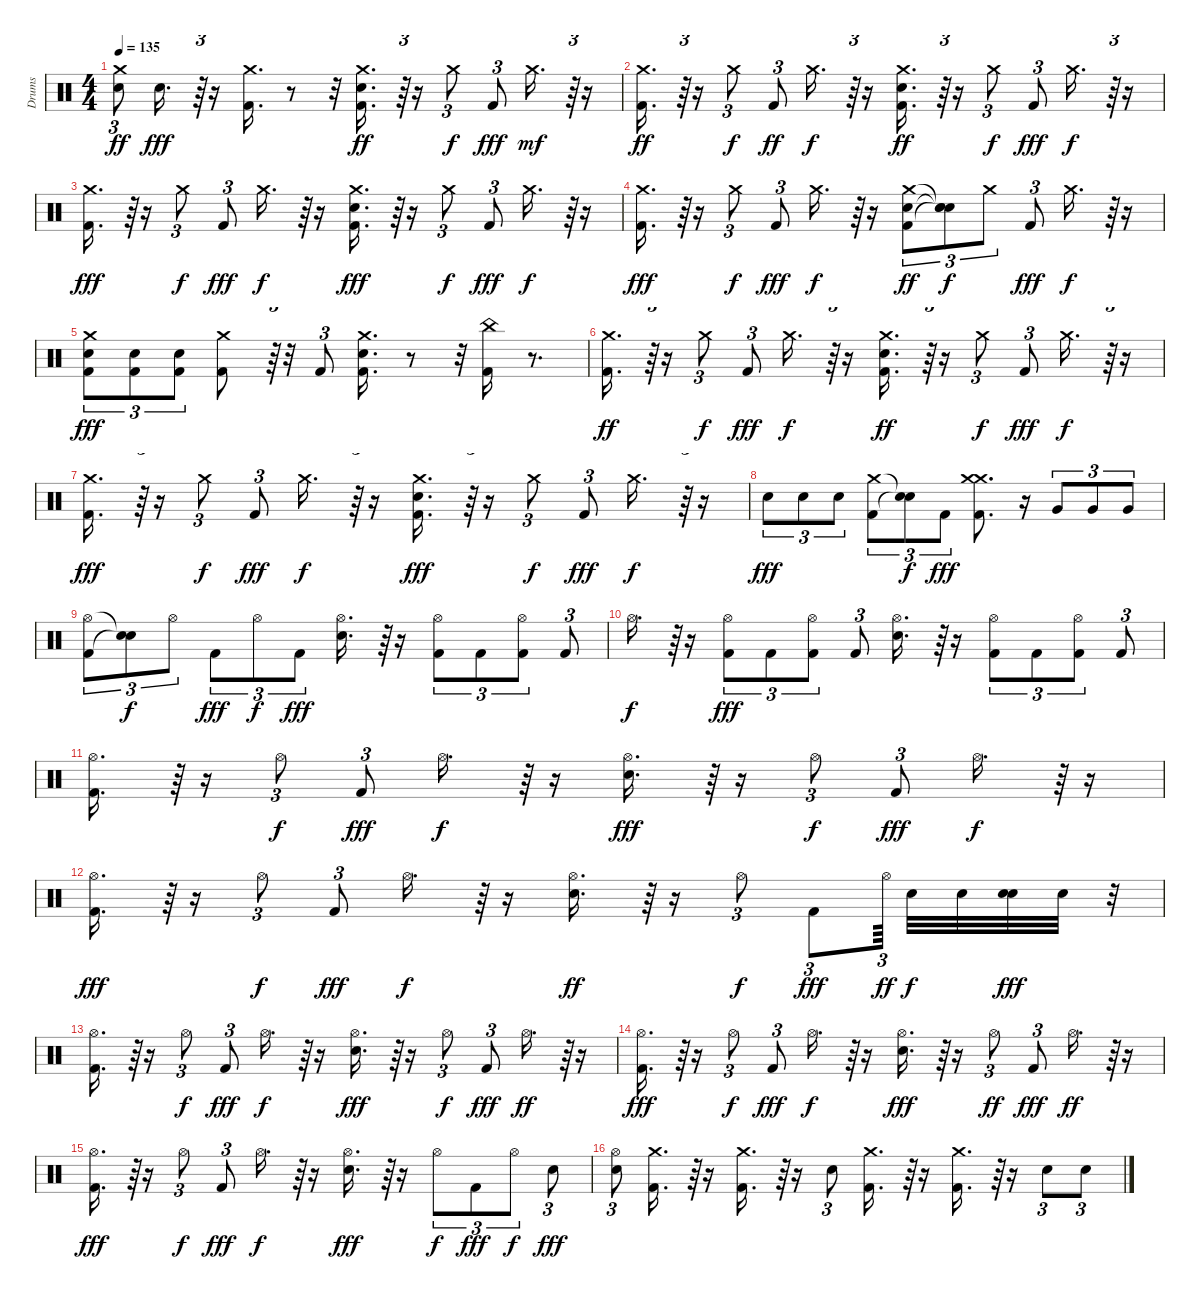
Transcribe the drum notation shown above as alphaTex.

\track ("Drums" "Drums") {instrument percussion}
\staff {score}
\articulation defaults
\ts (4 4)
\tempo 135
\clef neutral
\ks c
("Crash medium (hit)" "Snare (hit) 2").8{tu (3 2) dy ff} "Snare (hit) 2".16{d dy fff} r.64{tu (3 2)} r.16 ("Crash medium (hit)" "Kick (hit) 2").16{d} r.8 r.32 ("Crash medium (hit)" "Kick (hit) 2" "Snare (hit) 2").16{d dy ff} r.64{tu (3 2)} r.16 "Crash medium (hit)".8{tu (3 2) dy f} "Kick (hit) 2".8{tu (3 2) dy fff} "Crash medium (hit)".16{d dy mf} r.64{tu (3 2)} r.16 |
("Crash medium (hit)" "Kick (hit) 2").16{d dy ff} r.64{tu (3 2)} r.16 "Crash medium (hit)".8{tu (3 2) dy f} "Kick (hit) 2".8{tu (3 2) dy ff} "Crash medium (hit)".16{d dy f} r.64{tu (3 2)} r.16 ("Crash medium (hit)" "Kick (hit) 2" "Snare (hit) 2").16{d dy ff} r.64{tu (3 2)} r.16 "Crash medium (hit)".8{tu (3 2) dy f} "Kick (hit) 2".8{tu (3 2) dy fff} "Crash medium (hit)".16{d dy f} r.64{tu (3 2)} r.16 |
("Crash medium (hit)" "Kick (hit) 2").16{d dy fff} r.64{tu (3 2)} r.16 "Crash medium (hit)".8{tu (3 2) dy f} "Kick (hit) 2".8{tu (3 2) dy fff} "Crash medium (hit)".16{d dy f} r.64{tu (3 2)} r.16 ("Crash medium (hit)" "Snare (hit) 2" "Kick (hit) 2").16{d dy fff} r.64{tu (3 2)} r.16 "Crash medium (hit)".8{tu (3 2) dy f} "Kick (hit) 2".8{tu (3 2) dy fff} "Crash medium (hit)".16{d dy f} r.64{tu (3 2)} r.16 |
("Crash medium (hit)" "Kick (hit) 2").16{d dy fff} r.64{tu (3 2)} r.16 "Crash medium (hit)".8{tu (3 2) dy f} "Kick (hit) 2".8{tu (3 2) dy fff} "Crash medium (hit)".16{d dy f} r.64{tu (3 2)} r.16 ("Crash medium (hit)" "Kick (hit) 2" "Snare (hit) 2").8{tu (3 2) dy ff} ("Snare (hit)"{t} "Snare (hit)"{t} "Snare (hit)"{t}).8{tu (3 2) dy f} "Crash medium (hit)".8{tu (3 2)} "Kick (hit) 2".8{tu (3 2) dy fff} "Crash medium (hit)".16{d dy f} r.64{tu (3 2)} r.16 |
("Crash medium (hit)" "Kick (hit) 2" "Snare (hit) 2").8{tu (3 2) dy fff} ("Snare (hit) 2" "Kick (hit) 2").8{tu (3 2)} ("Kick (hit) 2" "Snare (hit) 2").8{tu (3 2)} ("Crash medium (hit)" "Kick (hit) 2").8 r.64{tu (3 2)} r.32 "Kick (hit) 2".8{tu (3 2)} ("Crash medium (hit)" "Snare (hit) 2" "Kick (hit) 2").16{d} r.8 r.32 ("China (hit)" "Kick (hit) 2").16 r.8{d} |
("Crash medium (hit)" "Kick (hit) 2").16{d dy ff} r.64{tu (3 2)} r.16 "Crash medium (hit)".8{tu (3 2) dy f} "Kick (hit) 2".8{tu (3 2) dy fff} "Crash medium (hit)".16{d dy f} r.64{tu (3 2)} r.16 ("Crash medium (hit)" "Kick (hit) 2" "Snare (hit) 2").16{d dy ff} r.64{tu (3 2)} r.16 "Crash medium (hit)".8{tu (3 2) dy f} "Kick (hit) 2".8{tu (3 2) dy fff} "Crash medium (hit)".16{d dy f} r.64{tu (3 2)} r.16 |
("Crash medium (hit)" "Kick (hit) 2").16{d dy fff} r.64{tu (3 2)} r.16 "Crash medium (hit)".8{tu (3 2) dy f} "Kick (hit) 2".8{tu (3 2) dy fff} "Crash medium (hit)".16{d dy f} r.64{tu (3 2)} r.16 ("Crash medium (hit)" "Kick (hit) 2" "Snare (hit) 2").16{d dy fff} r.64{tu (3 2)} r.16 "Crash medium (hit)".8{tu (3 2) dy f} "Kick (hit) 2".8{tu (3 2) dy fff} "Crash medium (hit)".16{d dy f} r.64{tu (3 2)} r.16 |
"Snare (hit) 2".8{tu (3 2) dy fff} "Snare (hit) 2".8{tu (3 2)} "Snare (hit) 2".8{tu (3 2)} ("Crash medium (hit)" "Kick (hit) 2").8{tu (3 2)} ("Snare (hit)"{t} "Snare (hit)"{t}).8{tu (3 2) dy f} "Kick (hit) 2".8{tu (3 2) dy fff} ("Crash medium (hit)" "Crash medium (hit)" "Kick (hit) 2").8{d} r.16 "Very Low Tom (hit)".8{tu (3 2)} "Very Low Tom (hit)".8{tu (3 2)} "Very Low Tom (hit)".8{tu (3 2)} |
("Hi-Hat (open)" "Kick (hit) 2").8{tu (3 2)} ("Snare (hit)"{t} "Snare (hit)"{t}).8{tu (3 2) dy f} "Hi-Hat (open)".8{tu (3 2)} "Kick (hit) 2".8{tu (3 2) dy fff} "Hi-Hat (open)".8{tu (3 2) dy f} "Kick (hit) 2".8{tu (3 2) dy fff} ("Hi-Hat (open)" "Snare (hit) 2").16{d} r.64{tu (3 2)} r.16 ("Hi-Hat (open)" "Kick (hit) 2").8{tu (3 2)} "Kick (hit) 2".8{tu (3 2)} ("Hi-Hat (open)" "Kick (hit) 2").8{tu (3 2)} "Kick (hit) 2".8{tu (3 2)} |
"Hi-Hat (open)".16{d dy f} r.64{tu (3 2)} r.16 ("Hi-Hat (open)" "Kick (hit) 2").8{tu (3 2) dy fff} "Kick (hit) 2".8{tu (3 2)} ("Hi-Hat (open)" "Kick (hit) 2").8{tu (3 2)} "Kick (hit) 2".8{tu (3 2)} ("Snare (hit) 2" "Hi-Hat (open)").16{d} r.64{tu (3 2)} r.16 ("Hi-Hat (open)" "Kick (hit) 2").8{tu (3 2)} "Kick (hit) 2".8{tu (3 2)} ("Hi-Hat (open)" "Kick (hit) 2").8{tu (3 2)} "Kick (hit) 2".8{tu (3 2)} |
("Hi-Hat (open)" "Kick (hit) 2").16{d} r.64{tu (3 2)} r.16 "Hi-Hat (open)".8{tu (3 2) dy f} "Kick (hit) 2".8{tu (3 2) dy fff} "Hi-Hat (open)".16{d dy f} r.64{tu (3 2)} r.16 ("Snare (hit) 2" "Hi-Hat (open)").16{d dy fff} r.64{tu (3 2)} r.16 "Hi-Hat (open)".8{tu (3 2) dy f} "Kick (hit) 2".8{tu (3 2) dy fff} "Hi-Hat (open)".16{d dy f} r.64{tu (3 2)} r.16 |
("Hi-Hat (open)" "Kick (hit) 2").16{d dy fff} r.64{tu (3 2)} r.16 "Hi-Hat (open)".8{tu (3 2) dy f} "Kick (hit) 2".8{tu (3 2) dy fff} "Hi-Hat (open)".16{d dy f} r.64{tu (3 2)} r.16 ("Snare (hit) 2" "Hi-Hat (open)").16{d dy ff} r.64{tu (3 2)} r.16 "Hi-Hat (open)".8{tu (3 2) dy f} "Kick (hit) 2".8{tu (3 2) dy fff} "Hi-Hat (open)".64{tu (3 2) dy ff beam splitsecondary} "Snare (hit) 2".32{dy f} "Snare (hit) 2".32 ("Snare (hit) 2" "Snare (hit) 2").32{dy fff} "Snare (hit) 2".32 r.32 |
("Kick (hit) 2" "Hi-Hat (open)").16{d} r.64{tu (3 2)} r.16 "Hi-Hat (open)".8{tu (3 2) dy f} "Kick (hit) 2".8{tu (3 2) dy fff} "Hi-Hat (open)".16{d dy f} r.64{tu (3 2)} r.16 ("Hi-Hat (open)" "Snare (hit) 2").16{d dy fff} r.64{tu (3 2)} r.16 "Hi-Hat (open)".8{tu (3 2) dy f} "Kick (hit) 2".8{tu (3 2) dy fff} "Hi-Hat (open)".16{d dy ff} r.64{tu (3 2)} r.16 |
("Hi-Hat (open)" "Kick (hit) 2").16{d dy fff} r.64{tu (3 2)} r.16 "Hi-Hat (open)".8{tu (3 2) dy f} "Kick (hit) 2".8{tu (3 2) dy fff} "Hi-Hat (open)".16{d dy f} r.64{tu (3 2)} r.16 ("Hi-Hat (open)" "Snare (hit) 2").16{d dy fff} r.64{tu (3 2)} r.16 "Hi-Hat (open)".8{tu (3 2) dy ff} "Kick (hit) 2".8{tu (3 2) dy fff} "Hi-Hat (open)".16{d dy ff} r.64{tu (3 2)} r.16 |
("Hi-Hat (open)" "Kick (hit) 2").16{d dy fff} r.64{tu (3 2)} r.16 "Hi-Hat (open)".8{tu (3 2) dy f} "Kick (hit) 2".8{tu (3 2) dy fff} "Hi-Hat (open)".16{d dy f} r.64{tu (3 2)} r.16 ("Snare (hit) 2" "Hi-Hat (open)").16{d dy fff} r.64{tu (3 2)} r.16 "Hi-Hat (open)".8{tu (3 2) dy f} "Kick (hit) 2".8{tu (3 2) dy fff} "Hi-Hat (open)".8{tu (3 2) dy f} "Snare (hit) 2".8{tu (3 2) dy fff} |
("Hi-Hat (open)" "Snare (hit) 2").8{tu (3 2)} ("Crash medium (hit)" "Kick (hit) 2").16{d} r.64{tu (3 2)} r.16 ("Crash medium (hit)" "Kick (hit) 2").16{d} r.64{tu (3 2)} r.16 "Snare (hit) 2".8{tu (3 2)} ("Crash medium (hit)" "Kick (hit) 2").16{d} r.64{tu (3 2)} r.16 ("Crash medium (hit)" "Kick (hit) 2").16{d} r.64{tu (3 2)} r.16 "Snare (hit) 2".8{tu (3 2)} "Snare (hit) 2".8{tu (3 2)}
